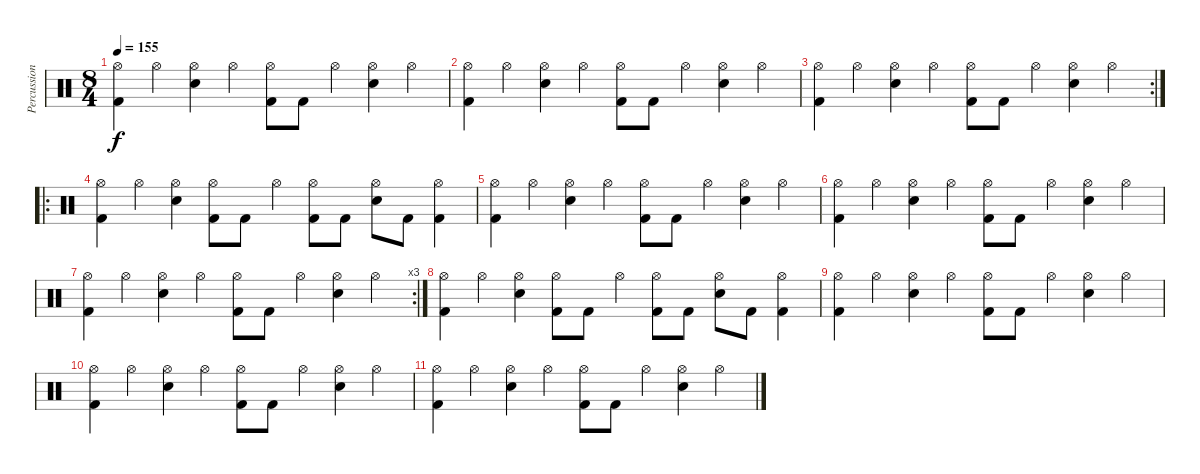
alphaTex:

\track ("Percussion" "Percussion") {instrument percussion}
\staff {score}
\articulation defaults
\ts (8 4)
\tempo 155
\clef neutral
\ks c
("Hi-Hat (open)" "Kick (hit) 2").4{dy f} "Hi-Hat (open)".4 ("Hi-Hat (open)" "Snare (hit) 2").4 "Hi-Hat (open)".4 ("Hi-Hat (open)" "Kick (hit) 2").8 "Kick (hit) 2".8 "Hi-Hat (open)".4 ("Hi-Hat (open)" "Snare (hit) 2").4 "Hi-Hat (open)".4 |
("Hi-Hat (open)" "Kick (hit) 2").4 "Hi-Hat (open)".4 ("Hi-Hat (open)" "Snare (hit) 2").4 "Hi-Hat (open)".4 ("Hi-Hat (open)" "Kick (hit) 2").8 "Kick (hit) 2".8 "Hi-Hat (open)".4 ("Hi-Hat (open)" "Snare (hit) 2").4 "Hi-Hat (open)".4 |
\rc 2
("Hi-Hat (open)" "Kick (hit) 2").4 "Hi-Hat (open)".4 ("Hi-Hat (open)" "Snare (hit) 2").4 "Hi-Hat (open)".4 ("Hi-Hat (open)" "Kick (hit) 2").8 "Kick (hit) 2".8 "Hi-Hat (open)".4 ("Hi-Hat (open)" "Snare (hit) 2").4 "Hi-Hat (open)".4 |
\ro
("Hi-Hat (open)" "Kick (hit) 2").4 "Hi-Hat (open)".4 ("Hi-Hat (open)" "Snare (hit) 2").4 ("Hi-Hat (open)" "Kick (hit) 2").8 "Kick (hit) 2".8 "Hi-Hat (open)".4 ("Hi-Hat (open)" "Kick (hit) 2").8 "Kick (hit) 2".8 ("Hi-Hat (open)" "Snare (hit) 2").8 "Kick (hit) 2".8 ("Hi-Hat (open)" "Kick (hit) 2").4 |
("Hi-Hat (open)" "Kick (hit) 2").4 "Hi-Hat (open)".4 ("Hi-Hat (open)" "Snare (hit) 2").4 "Hi-Hat (open)".4 ("Hi-Hat (open)" "Kick (hit) 2").8 "Kick (hit) 2".8 "Hi-Hat (open)".4 ("Hi-Hat (open)" "Snare (hit) 2").4 "Hi-Hat (open)".4 |
("Hi-Hat (open)" "Kick (hit) 2").4 "Hi-Hat (open)".4 ("Hi-Hat (open)" "Snare (hit) 2").4 "Hi-Hat (open)".4 ("Hi-Hat (open)" "Kick (hit) 2").8 "Kick (hit) 2".8 "Hi-Hat (open)".4 ("Hi-Hat (open)" "Snare (hit) 2").4 "Hi-Hat (open)".4 |
\rc 3
("Hi-Hat (open)" "Kick (hit) 2").4 "Hi-Hat (open)".4 ("Hi-Hat (open)" "Snare (hit) 2").4 "Hi-Hat (open)".4 ("Hi-Hat (open)" "Kick (hit) 2").8 "Kick (hit) 2".8 "Hi-Hat (open)".4 ("Hi-Hat (open)" "Snare (hit) 2").4 "Hi-Hat (open)".4 |
("Hi-Hat (open)" "Kick (hit) 2").4{volume 10} "Hi-Hat (open)".4 ("Hi-Hat (open)" "Snare (hit) 2").4 ("Hi-Hat (open)" "Kick (hit) 2").8 "Kick (hit) 2".8 "Hi-Hat (open)".4 ("Hi-Hat (open)" "Kick (hit) 2").8 "Kick (hit) 2".8 ("Hi-Hat (open)" "Snare (hit) 2").8 "Kick (hit) 2".8 ("Hi-Hat (open)" "Kick (hit) 2").4 |
("Hi-Hat (open)" "Kick (hit) 2").4{volume 7} "Hi-Hat (open)".4 ("Hi-Hat (open)" "Snare (hit) 2").4 "Hi-Hat (open)".4 ("Hi-Hat (open)" "Kick (hit) 2").8 "Kick (hit) 2".8 "Hi-Hat (open)".4 ("Hi-Hat (open)" "Snare (hit) 2").4 "Hi-Hat (open)".4 |
("Hi-Hat (open)" "Kick (hit) 2").4{volume 4} "Hi-Hat (open)".4 ("Hi-Hat (open)" "Snare (hit) 2").4 "Hi-Hat (open)".4 ("Hi-Hat (open)" "Kick (hit) 2").8 "Kick (hit) 2".8 "Hi-Hat (open)".4 ("Hi-Hat (open)" "Snare (hit) 2").4 "Hi-Hat (open)".4 |
("Hi-Hat (open)" "Kick (hit) 2").4{volume 0} "Hi-Hat (open)".4 ("Hi-Hat (open)" "Snare (hit) 2").4 "Hi-Hat (open)".4 ("Hi-Hat (open)" "Kick (hit) 2").8 "Kick (hit) 2".8 "Hi-Hat (open)".4 ("Hi-Hat (open)" "Snare (hit) 2").4 "Hi-Hat (open)".4
